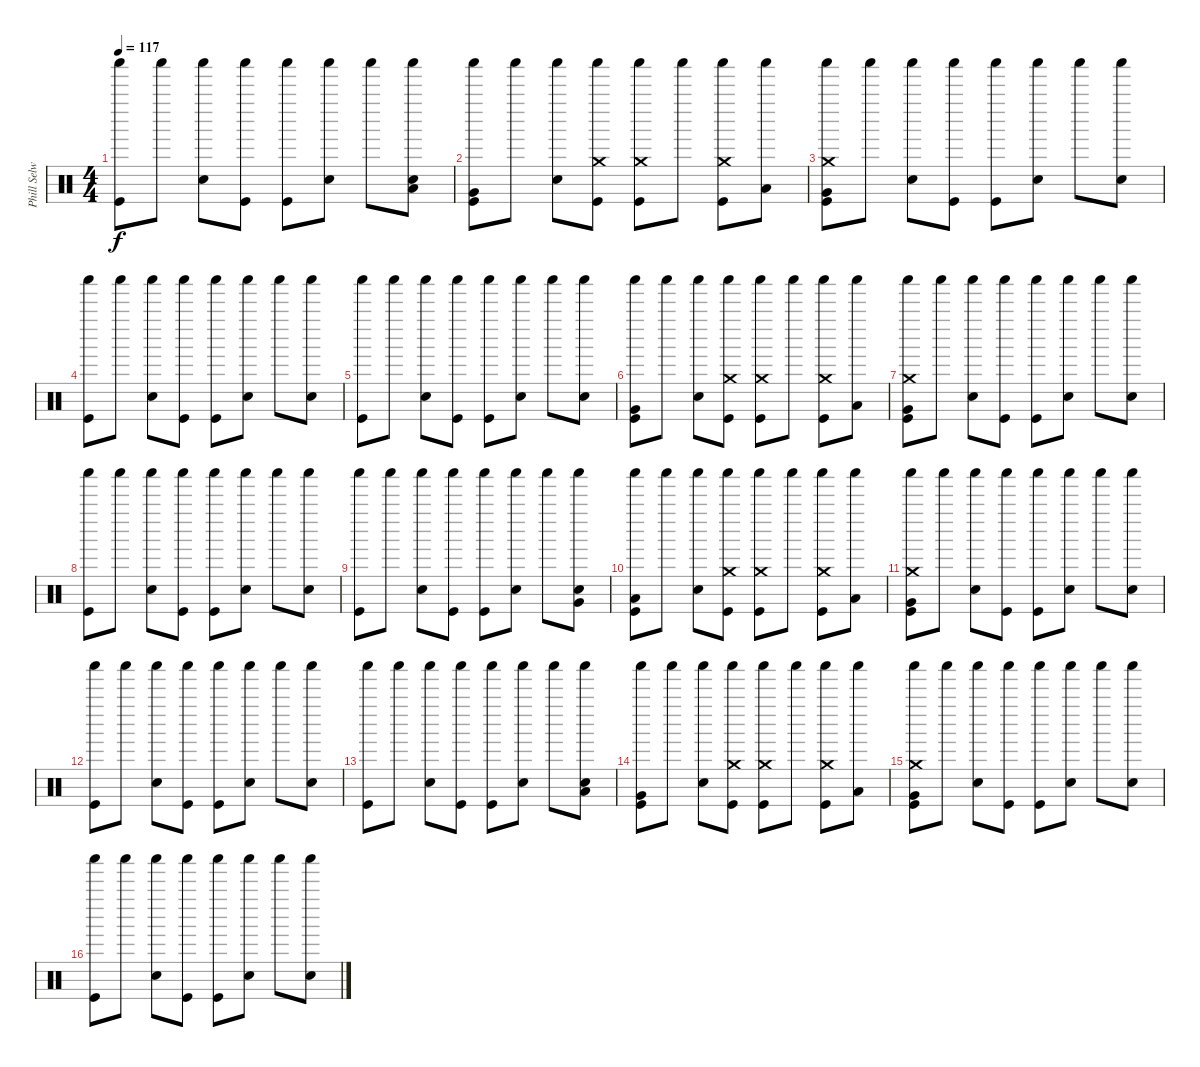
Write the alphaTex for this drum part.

\track ("Phill Selway" "Phill Selw") {instrument percussion}
\staff {score}
\articulation defaults
\ts (4 4)
\tempo 117
\clef neutral
\ks c
("Shaker (hit)" "Kick (hit)").8{dy f} "Shaker (hit)".8 ("Shaker (hit)" "Snare (hit) 2").8 ("Shaker (hit)" "Kick (hit)").8 ("Shaker (hit)" "Kick (hit)").8 ("Shaker (hit)" "Snare (hit) 2").8 "Shaker (hit)".8 ("Shaker (hit)" "Snare (hit) 2" "Low Floor Tom (hit)").8 |
("Shaker (hit)" "Kick (hit)" "Very Low Tom (hit)").8 "Shaker (hit)".8 ("Shaker (hit)" "Snare (hit) 2").8 ("Shaker (hit)" "Crash medium (hit)" "Kick (hit)").8 ("Shaker (hit)" "Crash medium (hit)" "Kick (hit)").8 "Shaker (hit)".8 ("Shaker (hit)" "Crash medium (hit)" "Kick (hit)").8 ("Shaker (hit)" "Low Tom (hit)").8 |
("Shaker (hit)" "Crash medium (hit)" "Kick (hit)" "Very Low Tom (hit)").8 "Shaker (hit)".8 ("Shaker (hit)" "Snare (hit) 2").8 ("Shaker (hit)" "Kick (hit)").8 ("Shaker (hit)" "Kick (hit)").8 ("Shaker (hit)" "Snare (hit) 2").8 "Shaker (hit)".8 ("Shaker (hit)" "Snare (hit) 2").8 |
("Shaker (hit)" "Kick (hit)").8 "Shaker (hit)".8 ("Shaker (hit)" "Snare (hit) 2").8 ("Shaker (hit)" "Kick (hit)").8 ("Shaker (hit)" "Kick (hit)").8 ("Shaker (hit)" "Snare (hit) 2").8 "Shaker (hit)".8 ("Shaker (hit)" "Snare (hit) 2").8 |
("Shaker (hit)" "Kick (hit)").8 "Shaker (hit)".8 ("Shaker (hit)" "Snare (hit) 2").8 ("Shaker (hit)" "Kick (hit)").8 ("Shaker (hit)" "Kick (hit)").8 ("Shaker (hit)" "Snare (hit) 2").8 "Shaker (hit)".8 ("Shaker (hit)" "Snare (hit) 2").8 |
("Shaker (hit)" "Kick (hit)" "Very Low Tom (hit)").8 "Shaker (hit)".8 ("Shaker (hit)" "Snare (hit) 2").8 ("Shaker (hit)" "Crash medium (hit)" "Kick (hit)").8 ("Shaker (hit)" "Crash medium (hit)" "Kick (hit)").8 "Shaker (hit)".8 ("Shaker (hit)" "Crash medium (hit)" "Kick (hit)").8 ("Shaker (hit)" "Low Tom (hit)").8 |
("Shaker (hit)" "Crash medium (hit)" "Kick (hit)" "Very Low Tom (hit)").8 "Shaker (hit)".8 ("Shaker (hit)" "Snare (hit) 2").8 ("Shaker (hit)" "Kick (hit)").8 ("Shaker (hit)" "Kick (hit)").8 ("Shaker (hit)" "Snare (hit) 2").8 "Shaker (hit)".8 ("Shaker (hit)" "Snare (hit) 2").8 |
("Shaker (hit)" "Kick (hit)").8 "Shaker (hit)".8 ("Shaker (hit)" "Snare (hit) 2").8 ("Shaker (hit)" "Kick (hit)").8 ("Shaker (hit)" "Kick (hit)").8 ("Shaker (hit)" "Snare (hit) 2").8 "Shaker (hit)".8 ("Shaker (hit)" "Snare (hit) 2").8 |
("Shaker (hit)" "Kick (hit)").8 "Shaker (hit)".8 ("Shaker (hit)" "Snare (hit) 2").8 ("Shaker (hit)" "Kick (hit)").8 ("Shaker (hit)" "Kick (hit)").8 ("Shaker (hit)" "Snare (hit) 2").8 "Shaker (hit)".8 ("Shaker (hit)" "Snare (hit) 2" "Very Low Tom (hit)").8 |
("Shaker (hit)" "Kick (hit)" "Low Floor Tom (hit)").8 "Shaker (hit)".8 ("Shaker (hit)" "Snare (hit) 2").8 ("Shaker (hit)" "Crash medium (hit)" "Kick (hit)").8 ("Shaker (hit)" "Crash medium (hit)" "Kick (hit)").8 "Shaker (hit)".8 ("Shaker (hit)" "Crash medium (hit)" "Kick (hit)").8 ("Shaker (hit)" "Low Tom (hit)").8 |
("Shaker (hit)" "Crash medium (hit)" "Kick (hit)" "Very Low Tom (hit)").8 "Shaker (hit)".8 ("Shaker (hit)" "Snare (hit) 2").8 ("Shaker (hit)" "Kick (hit)").8 ("Shaker (hit)" "Kick (hit)").8 ("Shaker (hit)" "Snare (hit) 2").8 "Shaker (hit)".8 ("Shaker (hit)" "Snare (hit) 2").8 |
("Shaker (hit)" "Kick (hit)").8 "Shaker (hit)".8 ("Shaker (hit)" "Snare (hit) 2").8 ("Shaker (hit)" "Kick (hit)").8 ("Shaker (hit)" "Kick (hit)").8 ("Shaker (hit)" "Snare (hit) 2").8 "Shaker (hit)".8 ("Shaker (hit)" "Snare (hit) 2").8 |
("Shaker (hit)" "Kick (hit)").8 "Shaker (hit)".8 ("Shaker (hit)" "Snare (hit) 2").8 ("Shaker (hit)" "Kick (hit)").8 ("Shaker (hit)" "Kick (hit)").8 ("Shaker (hit)" "Snare (hit) 2").8 "Shaker (hit)".8 ("Shaker (hit)" "Snare (hit) 2" "Low Floor Tom (hit)").8 |
("Shaker (hit)" "Kick (hit)" "Very Low Tom (hit)").8 "Shaker (hit)".8 ("Shaker (hit)" "Snare (hit) 2").8 ("Shaker (hit)" "Crash medium (hit)" "Kick (hit)").8 ("Shaker (hit)" "Crash medium (hit)" "Kick (hit)").8 "Shaker (hit)".8 ("Shaker (hit)" "Crash medium (hit)" "Kick (hit)").8 ("Shaker (hit)" "Low Tom (hit)").8 |
("Shaker (hit)" "Crash medium (hit)" "Kick (hit)" "Very Low Tom (hit)").8 "Shaker (hit)".8 ("Shaker (hit)" "Snare (hit) 2").8 ("Shaker (hit)" "Kick (hit)").8 ("Shaker (hit)" "Kick (hit)").8 ("Shaker (hit)" "Snare (hit) 2").8 "Shaker (hit)".8 ("Shaker (hit)" "Snare (hit) 2").8 |
("Shaker (hit)" "Kick (hit)").8 "Shaker (hit)".8 ("Shaker (hit)" "Snare (hit) 2").8 ("Shaker (hit)" "Kick (hit)").8 ("Shaker (hit)" "Kick (hit)").8 ("Shaker (hit)" "Snare (hit) 2").8 "Shaker (hit)".8 ("Shaker (hit)" "Snare (hit) 2").8
